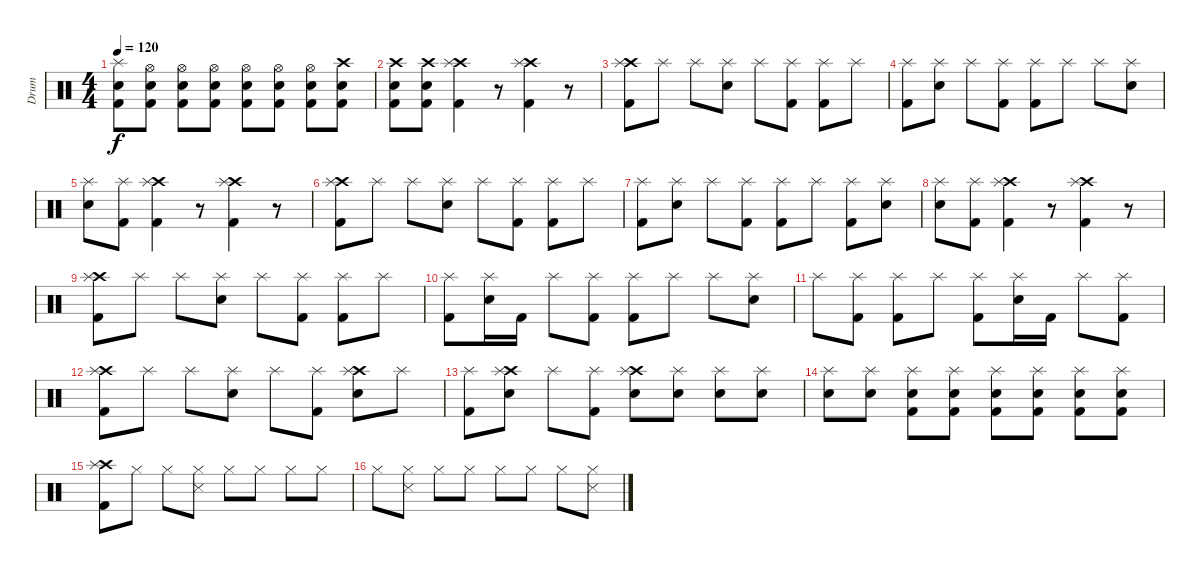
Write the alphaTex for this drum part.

\track ("Drum" "Drum") {instrument percussion}
\staff {score}
\articulation defaults
\ts (4 4)
\tempo 120
\clef neutral
\ks c
("Splash (hit)" "Snare (hit) 2" "Kick (hit) 2").8{dy f} ("Hi-Hat (open)" "Snare (hit) 2" "Kick (hit) 2").8 ("Hi-Hat (open)" "Snare (hit) 2" "Kick (hit) 2").8 ("Hi-Hat (open)" "Snare (hit) 2" "Kick (hit) 2").8 ("Hi-Hat (open)" "Snare (hit) 2" "Kick (hit) 2").8 ("Hi-Hat (open)" "Snare (hit) 2" "Kick (hit) 2").8 ("Hi-Hat (open)" "Snare (hit) 2" "Kick (hit) 2").8 ("Crash high (hit)" "Snare (hit) 2" "Kick (hit) 2").8 |
("Crash high (hit)" "Snare (hit) 2" "Kick (hit) 2").8 ("Crash high (hit)" "Snare (hit) 2" "Kick (hit) 2").8 ("Crash high (hit)" "Splash (hit)" "Kick (hit) 2").4 r.8 ("Crash high (hit)" "Splash (hit)" "Kick (hit) 2").4 r.8 |
("Crash high (hit)" "Splash (hit)" "Kick (hit) 2").8 "Splash (hit)".8 "Splash (hit)".8 ("Splash (hit)" "Snare (hit) 2").8 "Splash (hit)".8 ("Splash (hit)" "Kick (hit) 2").8 ("Splash (hit)" "Kick (hit) 2").8 "Splash (hit)".8 |
("Splash (hit)" "Kick (hit) 2").8 ("Splash (hit)" "Snare (hit) 2").8 "Splash (hit)".8 ("Splash (hit)" "Kick (hit) 2").8 ("Splash (hit)" "Kick (hit) 2").8 "Splash (hit)".8 "Splash (hit)".8 ("Splash (hit)" "Snare (hit) 2").8 |
("Splash (hit)" "Snare (hit) 2").8 ("Splash (hit)" "Kick (hit) 2").8 ("Crash high (hit)" "Splash (hit)" "Kick (hit) 2").4 r.8 ("Crash high (hit)" "Splash (hit)" "Kick (hit) 2").4 r.8 |
("Crash high (hit)" "Splash (hit)" "Kick (hit) 2").8 "Splash (hit)".8 "Splash (hit)".8 ("Splash (hit)" "Snare (hit) 2").8 "Splash (hit)".8 ("Splash (hit)" "Kick (hit) 2").8 ("Splash (hit)" "Kick (hit) 2").8 "Splash (hit)".8 |
("Splash (hit)" "Kick (hit) 2").8 ("Splash (hit)" "Snare (hit) 2").8 "Splash (hit)".8 ("Splash (hit)" "Kick (hit) 2").8 ("Splash (hit)" "Kick (hit) 2").8 "Splash (hit)".8 ("Splash (hit)" "Kick (hit) 2").8 ("Splash (hit)" "Snare (hit) 2").8 |
("Splash (hit)" "Snare (hit) 2").8 ("Splash (hit)" "Kick (hit) 2").8 ("Crash high (hit)" "Splash (hit)" "Kick (hit) 2").4 r.8 ("Crash high (hit)" "Splash (hit)" "Kick (hit) 2").4 r.8 |
("Crash high (hit)" "Splash (hit)" "Kick (hit) 2").8 "Splash (hit)".8 "Splash (hit)".8 ("Splash (hit)" "Snare (hit) 2").8 "Splash (hit)".8 ("Splash (hit)" "Kick (hit) 2").8 ("Splash (hit)" "Kick (hit) 2").8 "Splash (hit)".8 |
("Splash (hit)" "Kick (hit) 2").8 ("Splash (hit)" "Snare (hit) 2").16 "Kick (hit) 2".16 "Splash (hit)".8 ("Splash (hit)" "Kick (hit) 2").8 ("Splash (hit)" "Kick (hit) 2").8 "Splash (hit)".8 "Splash (hit)".8 ("Splash (hit)" "Snare (hit) 2").8 |
"Splash (hit)".8 ("Splash (hit)" "Kick (hit) 2").8 ("Splash (hit)" "Kick (hit) 2").8 "Splash (hit)".8 ("Splash (hit)" "Kick (hit) 2").8 ("Splash (hit)" "Snare (hit) 2").16 "Kick (hit) 2".16 "Splash (hit)".8 ("Splash (hit)" "Kick (hit) 2").8 |
("Crash high (hit)" "Splash (hit)" "Kick (hit) 2").8 "Splash (hit)".8 "Splash (hit)".8 ("Splash (hit)" "Snare (hit) 2").8 "Splash (hit)".8 ("Splash (hit)" "Kick (hit) 2").8 ("Crash high (hit)" "Splash (hit)" "Snare (hit) 2").8 "Splash (hit)".8 |
("Splash (hit)" "Kick (hit) 2").8 ("Crash high (hit)" "Splash (hit)" "Snare (hit) 2").8 "Splash (hit)".8 ("Splash (hit)" "Kick (hit) 2").8 ("Crash high (hit)" "Splash (hit)" "Snare (hit) 2").8 ("Splash (hit)" "Snare (hit) 2").8 ("Splash (hit)" "Snare (hit) 2").8 ("Splash (hit)" "Snare (hit) 2").8 |
("Splash (hit)" "Snare (hit) 2").8 ("Splash (hit)" "Snare (hit) 2").8 ("Splash (hit)" "Snare (hit) 2" "Kick (hit) 2").8 ("Splash (hit)" "Snare (hit) 2" "Kick (hit) 2").8 ("Splash (hit)" "Snare (hit) 2" "Kick (hit) 2").8 ("Splash (hit)" "Snare (hit) 2" "Kick (hit) 2").8 ("Splash (hit)" "Snare (hit) 2" "Kick (hit) 2").8 ("Splash (hit)" "Snare (hit) 2" "Kick (hit) 2").8 |
("Crash high (hit)" "Splash (hit)" "Kick (hit) 2").8 "Hi-Hat (closed)".8 "Hi-Hat (closed)".8 ("Hi-Hat (closed)" "Snare (side stick) 3").8 "Hi-Hat (closed)".8 "Hi-Hat (closed)".8 "Hi-Hat (closed)".8 "Hi-Hat (closed)".8 |
"Hi-Hat (closed)".8 ("Hi-Hat (closed)" "Snare (side stick) 3").8 "Hi-Hat (closed)".8 "Hi-Hat (closed)".8 "Hi-Hat (closed)".8 "Hi-Hat (closed)".8 "Hi-Hat (closed)".8 ("Hi-Hat (closed)" "Snare (side stick) 3").8
